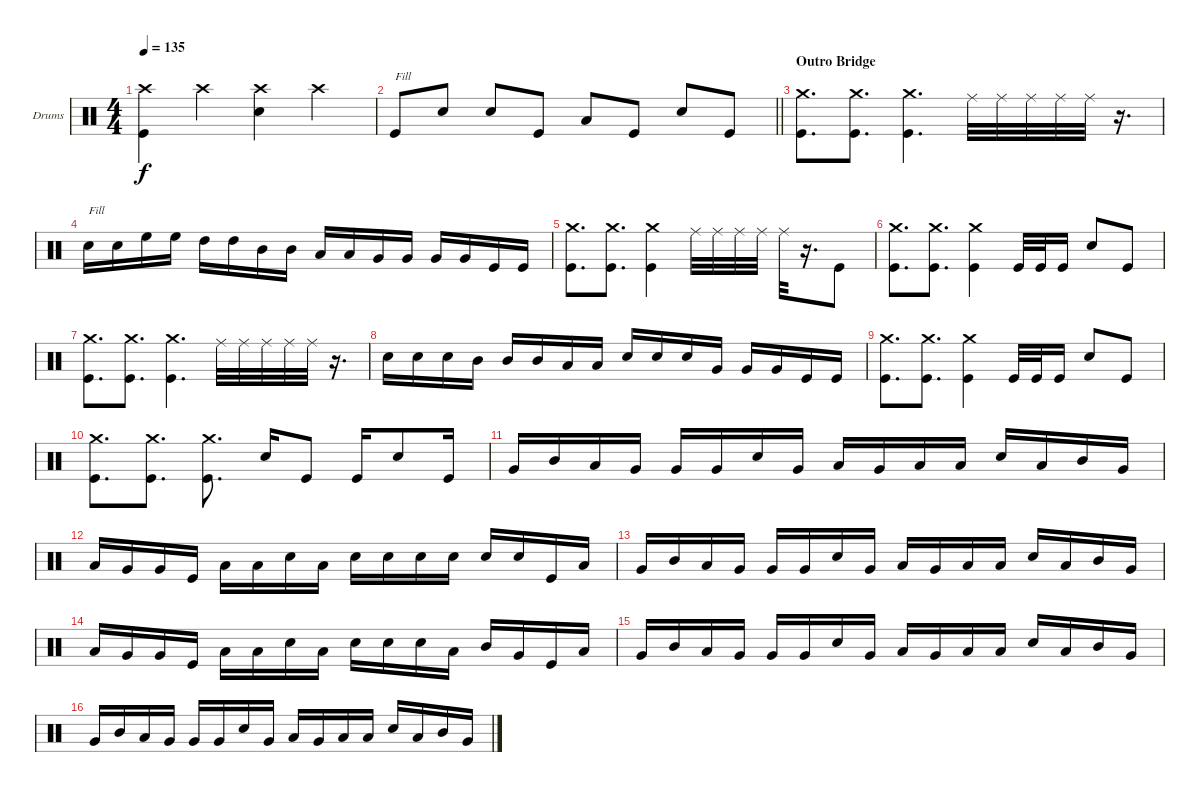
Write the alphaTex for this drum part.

\bracketExtendMode groupsimilarinstruments
\firstSystemTrackNameOrientation horizontal
\otherSystemsTrackNameOrientation horizontal
\track ("Drumkit" "Drums") {instrument percussion}
\staff {score}
\articulation defaults
\ts (4 4)
\tempo 135
\clef neutral
\ks c
("Kick (hit)" "Crash high (hit)").4{dy f} "Crash high (hit)".4 ("Snare (hit) 2" "Crash high (hit)").4 "Crash high (hit)".4 |
\barLineRight lightlight "Kick (hit)".8{txt "Fill"} "Snare (hit) 2".8 "Snare (hit) 2".8 "Kick (hit)".8 "Low Tom (hit)".8 "Kick (hit)".8 "Snare (hit) 2".8 "Kick (hit)".8
|
\section ("" "Outro Bridge")
("Kick (hit)" "Crash medium (hit)").8{d} ("Kick (hit)" "Crash medium (hit)").8{d} ("Kick (hit)" "Crash medium (hit)").4{d} "Ride (middle)".32 "Ride (middle)".32 "Ride (middle)".32 "Ride (middle)".32 "Ride (middle)".32 r.16{d} |
"Snare (hit) 2".16{txt "Fill"} "Snare (hit) 2".16 "High Floor Tom (hit)".16 "High Floor Tom (hit)".16 "High Tom (hit)".16 "High Tom (hit)".16 "Mid Tom (hit)".16 "Mid Tom (hit)".16 "Low Tom (hit)".16 "Low Tom (hit)".16 "Very Low Tom (hit)".16 "Very Low Tom (hit)".16 "Very Low Tom (hit)".16 "Very Low Tom (hit)".16 "Kick (hit)".16 "Kick (hit)".16 |
("Kick (hit)" "Crash medium (hit)").8{d} ("Kick (hit)" "Crash medium (hit)").8{d} ("Kick (hit)" "Crash medium (hit)").4 "Ride (middle)".32 "Ride (middle)".32 "Ride (middle)".32 "Ride (middle)".32 "Ride (middle)".32 r.16{d} "Kick (hit)".8 |
("Kick (hit)" "Crash medium (hit)").8{d} ("Kick (hit)" "Crash medium (hit)").8{d} ("Kick (hit)" "Crash medium (hit)").4 "Kick (hit)".32 "Kick (hit)".32 "Kick (hit)".16 "Snare (hit) 2".8 "Kick (hit)".8 |
("Kick (hit)" "Crash medium (hit)").8{d} ("Kick (hit)" "Crash medium (hit)").8{d} ("Kick (hit)" "Crash medium (hit)").4{d} "Ride (middle)".32 "Ride (middle)".32 "Ride (middle)".32 "Ride (middle)".32 "Ride (middle)".32 r.16{d} |
"Snare (hit) 2".16 "Snare (hit) 2".16 "Snare (hit) 2".16 "Mid Tom (hit)".16 "Mid Tom (hit)".16 "Mid Tom (hit)".16 "Low Tom (hit)".16 "Low Tom (hit)".16 "Snare (hit) 2".16 "Snare (hit) 2".16 "Snare (hit) 2".16 "Very Low Tom (hit)".16 "Very Low Tom (hit)".16 "Very Low Tom (hit)".16 "Kick (hit)".16 "Kick (hit)".16 |
("Kick (hit)" "Crash medium (hit)").8{d} ("Kick (hit)" "Crash medium (hit)").8{d} ("Kick (hit)" "Crash medium (hit)").4 "Kick (hit)".32 "Kick (hit)".32 "Kick (hit)".16 "Snare (hit) 2".8 "Kick (hit)".8 |
("Kick (hit)" "Crash medium (hit)").8{d} ("Kick (hit)" "Crash medium (hit)").8{d} ("Kick (hit)" "Crash medium (hit)").8{d} "Snare (hit) 2".16 "Kick (hit)".8 "Kick (hit)".16 "Snare (hit) 2".8 "Kick (hit)".16 |
"Very Low Tom (hit)".16 "Mid Tom (hit)".16 "Low Tom (hit)".16 "Very Low Tom (hit)".16 "Very Low Tom (hit)".16 "Very Low Tom (hit)".16 "Snare (hit) 2".16 "Very Low Tom (hit)".16 "Low Tom (hit)".16 "Very Low Tom (hit)".16 "Low Tom (hit)".16 "Low Tom (hit)".16 "Snare (hit) 2".16 "Low Tom (hit)".16 "Mid Tom (hit)".16 "Very Low Tom (hit)".16 |
"Low Tom (hit)".16 "Very Low Tom (hit)".16 "Very Low Tom (hit)".16 "Kick (hit)".16 "Low Tom (hit)".16 "Low Tom (hit)".16 "Snare (hit) 2".16 "Low Tom (hit)".16 "Snare (hit) 2".16 "Snare (hit) 2".16 "Snare (hit) 2".16 "Snare (hit) 2".16 "Snare (hit) 2".16 "Snare (hit) 2".16 "Kick (hit)".16 "Low Tom (hit)".16 |
"Very Low Tom (hit)".16 "Mid Tom (hit)".16 "Low Tom (hit)".16 "Very Low Tom (hit)".16 "Very Low Tom (hit)".16 "Very Low Tom (hit)".16 "Snare (hit) 2".16 "Very Low Tom (hit)".16 "Low Tom (hit)".16 "Very Low Tom (hit)".16 "Low Tom (hit)".16 "Low Tom (hit)".16 "Snare (hit) 2".16 "Low Tom (hit)".16 "Mid Tom (hit)".16 "Very Low Tom (hit)".16 |
"Low Tom (hit)".16 "Very Low Tom (hit)".16 "Very Low Tom (hit)".16 "Kick (hit)".16 "Low Tom (hit)".16 "Low Tom (hit)".16 "Snare (hit) 2".16 "Low Tom (hit)".16 "Snare (hit) 2".16 "Snare (hit) 2".16 "Snare (hit) 2".16 "Low Tom (hit)".16 "Mid Tom (hit)".16 "Very Low Tom (hit)".16 "Kick (hit)".16 "Low Tom (hit)".16 |
"Very Low Tom (hit)".16 "Mid Tom (hit)".16 "Low Tom (hit)".16 "Very Low Tom (hit)".16 "Very Low Tom (hit)".16 "Very Low Tom (hit)".16 "Snare (hit) 2".16 "Very Low Tom (hit)".16 "Low Tom (hit)".16 "Very Low Tom (hit)".16 "Low Tom (hit)".16 "Low Tom (hit)".16 "Snare (hit) 2".16 "Low Tom (hit)".16 "Mid Tom (hit)".16 "Very Low Tom (hit)".16 |
"Very Low Tom (hit)".16 "Mid Tom (hit)".16 "Low Tom (hit)".16 "Very Low Tom (hit)".16 "Very Low Tom (hit)".16 "Very Low Tom (hit)".16 "Snare (hit) 2".16 "Very Low Tom (hit)".16 "Low Tom (hit)".16 "Very Low Tom (hit)".16 "Low Tom (hit)".16 "Low Tom (hit)".16 "Snare (hit) 2".16 "Low Tom (hit)".16 "Mid Tom (hit)".16 "Very Low Tom (hit)".16
